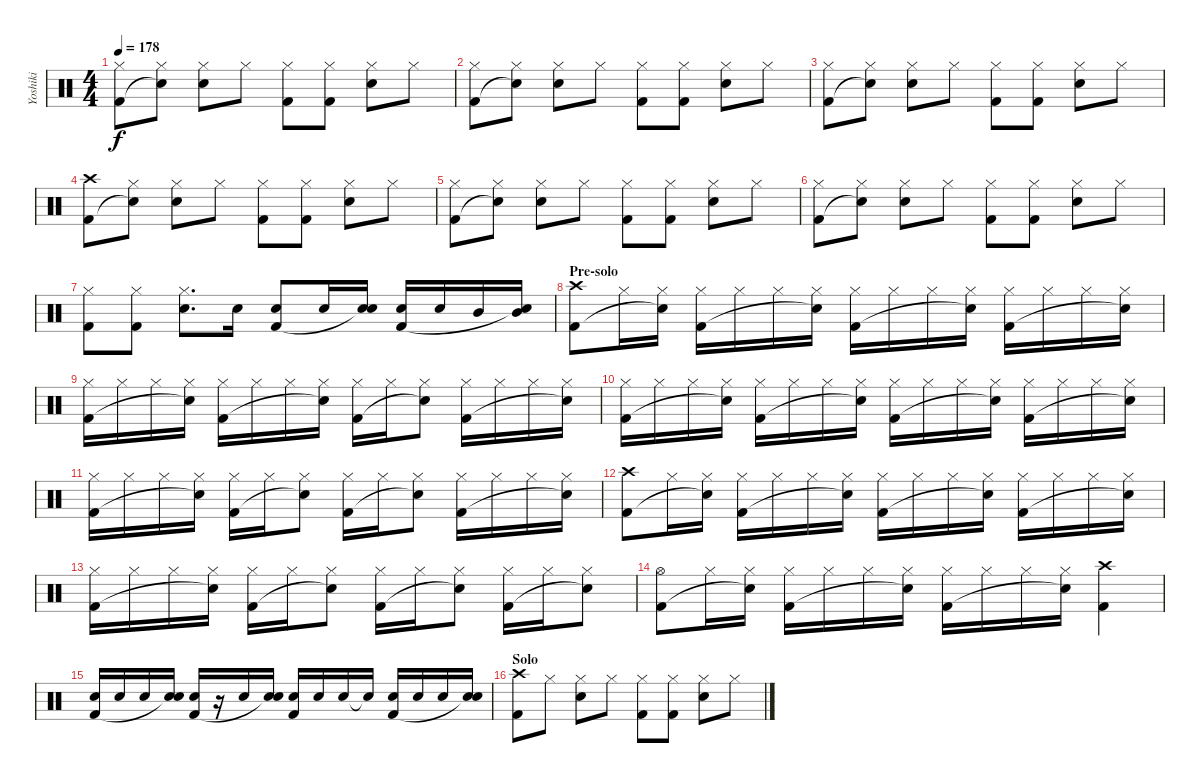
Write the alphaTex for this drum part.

\track ("Yoshiki" "Yoshiki") {instrument percussion}
\staff {score}
\articulation defaults
\ts (4 4)
\tempo 178
\clef neutral
\ks c
("Hi-Hat (closed)" "Kick (hit) 2").8{dy f} ("Hi-Hat (closed)" "Snare (hit)"{t}).8 ("Hi-Hat (closed)" "Snare (hit) 2").8 "Hi-Hat (closed)".8 ("Hi-Hat (closed)" "Kick (hit) 2").8 ("Hi-Hat (closed)" "Kick (hit) 2").8 ("Hi-Hat (closed)" "Snare (hit) 2").8 "Hi-Hat (closed)".8 |
("Hi-Hat (closed)" "Kick (hit) 2").8 ("Hi-Hat (closed)" "Snare (hit)"{t}).8 ("Hi-Hat (closed)" "Snare (hit) 2").8 "Hi-Hat (closed)".8 ("Hi-Hat (closed)" "Kick (hit) 2").8 ("Hi-Hat (closed)" "Kick (hit) 2").8 ("Hi-Hat (closed)" "Snare (hit) 2").8 "Hi-Hat (closed)".8 |
("Hi-Hat (closed)" "Kick (hit) 2").8 ("Hi-Hat (closed)" "Snare (hit)"{t}).8 ("Hi-Hat (closed)" "Snare (hit) 2").8 "Hi-Hat (closed)".8 ("Hi-Hat (closed)" "Kick (hit) 2").8 ("Hi-Hat (closed)" "Kick (hit) 2").8 ("Hi-Hat (closed)" "Snare (hit) 2").8 "Hi-Hat (closed)".8 |
("Crash high (hit)" "Kick (hit) 2").8 ("Hi-Hat (closed)" "Snare (hit)"{t}).8 ("Hi-Hat (closed)" "Snare (hit) 2").8 "Hi-Hat (closed)".8 ("Hi-Hat (closed)" "Kick (hit) 2").8 ("Hi-Hat (closed)" "Kick (hit) 2").8 ("Hi-Hat (closed)" "Snare (hit) 2").8 "Hi-Hat (closed)".8 |
("Hi-Hat (closed)" "Kick (hit) 2").8 ("Hi-Hat (closed)" "Snare (hit)"{t}).8 ("Hi-Hat (closed)" "Snare (hit) 2").8 "Hi-Hat (closed)".8 ("Hi-Hat (closed)" "Kick (hit) 2").8 ("Hi-Hat (closed)" "Kick (hit) 2").8 ("Hi-Hat (closed)" "Snare (hit) 2").8 "Hi-Hat (closed)".8 |
("Hi-Hat (closed)" "Kick (hit) 2").8 ("Hi-Hat (closed)" "Snare (hit)"{t}).8 ("Hi-Hat (closed)" "Snare (hit) 2").8 "Hi-Hat (closed)".8 ("Hi-Hat (closed)" "Kick (hit) 2").8 ("Hi-Hat (closed)" "Kick (hit) 2").8 ("Hi-Hat (closed)" "Snare (hit) 2").8 "Hi-Hat (closed)".8 |
("Hi-Hat (closed)" "Kick (hit) 2").8 ("Hi-Hat (closed)" "Kick (hit) 2").8 ("Hi-Hat (closed)" "Snare (hit) 2").8{d} "Snare (hit) 2".16 ("Snare (hit) 2" "Kick (hit) 2").8 "Snare (hit) 2".16 ("Snare (hit) 2" "Snare (hit)"{t}).16 ("Snare (hit) 2" "Kick (hit) 2").16 "Snare (hit) 2".16 "Mid Tom (hit)".16 ("Mid Tom (hit)" "Snare (hit)"{t}).16 |
\section ("" "Pre-solo")
("Crash high (hit)" "Kick (hit) 2").8 "Hi-Hat (closed)".16 ("Hi-Hat (closed)" "Snare (hit)"{t}).16 ("Hi-Hat (closed)" "Kick (hit) 2").16 "Hi-Hat (closed)".16 "Hi-Hat (closed)".16 ("Hi-Hat (closed)" "Snare (hit)"{t}).16 ("Hi-Hat (closed)" "Kick (hit) 2").16 "Hi-Hat (closed)".16 "Hi-Hat (closed)".16 ("Hi-Hat (closed)" "Snare (hit)"{t}).16 ("Hi-Hat (closed)" "Kick (hit) 2").16 "Hi-Hat (closed)".16 "Hi-Hat (closed)".16 ("Hi-Hat (closed)" "Snare (hit)"{t}).16 |
("Hi-Hat (closed)" "Kick (hit) 2").16 "Hi-Hat (closed)".16 "Hi-Hat (closed)".16 ("Hi-Hat (closed)" "Snare (hit)"{t}).16 ("Hi-Hat (closed)" "Kick (hit) 2").16 "Hi-Hat (closed)".16 "Hi-Hat (closed)".16 ("Hi-Hat (closed)" "Snare (hit)"{t}).16 ("Hi-Hat (closed)" "Kick (hit) 2").16 "Hi-Hat (closed)".16 ("Hi-Hat (closed)" "Snare (hit)"{t}).8 ("Hi-Hat (closed)" "Kick (hit) 2").16 "Hi-Hat (closed)".16 "Hi-Hat (closed)".16 ("Hi-Hat (closed)" "Snare (hit)"{t}).16 |
("Hi-Hat (closed)" "Kick (hit) 2").16 "Hi-Hat (closed)".16 "Hi-Hat (closed)".16 ("Hi-Hat (closed)" "Snare (hit)"{t}).16 ("Hi-Hat (closed)" "Kick (hit) 2").16 "Hi-Hat (closed)".16 "Hi-Hat (closed)".16 ("Hi-Hat (closed)" "Snare (hit)"{t}).16 ("Hi-Hat (closed)" "Kick (hit) 2").16 "Hi-Hat (closed)".16 "Hi-Hat (closed)".16 ("Hi-Hat (closed)" "Snare (hit)"{t}).16 ("Hi-Hat (closed)" "Kick (hit) 2").16 "Hi-Hat (closed)".16 "Hi-Hat (closed)".16 ("Hi-Hat (closed)" "Snare (hit)"{t}).16 |
("Hi-Hat (closed)" "Kick (hit) 2").16 "Hi-Hat (closed)".16 "Hi-Hat (closed)".16 ("Hi-Hat (closed)" "Snare (hit)"{t}).16 ("Hi-Hat (closed)" "Kick (hit) 2").16 "Hi-Hat (closed)".16 ("Hi-Hat (closed)" "Snare (hit)"{t}).8 ("Hi-Hat (closed)" "Kick (hit) 2").16 "Hi-Hat (closed)".16 ("Hi-Hat (closed)" "Snare (hit)"{t}).8 ("Hi-Hat (closed)" "Kick (hit) 2").16 "Hi-Hat (closed)".16 "Hi-Hat (closed)".16 ("Hi-Hat (closed)" "Snare (hit)"{t}).16 |
("Crash high (hit)" "Kick (hit) 2").8 "Hi-Hat (closed)".16 ("Hi-Hat (closed)" "Snare (hit)"{t}).16 ("Hi-Hat (closed)" "Kick (hit) 2").16 "Hi-Hat (closed)".16 "Hi-Hat (closed)".16 ("Hi-Hat (closed)" "Snare (hit)"{t}).16 ("Hi-Hat (closed)" "Kick (hit) 2").16 "Hi-Hat (closed)".16 "Hi-Hat (closed)".16 ("Hi-Hat (closed)" "Snare (hit)"{t}).16 ("Hi-Hat (closed)" "Kick (hit) 2").16 "Hi-Hat (closed)".16 "Hi-Hat (closed)".16 ("Hi-Hat (closed)" "Snare (hit)"{t}).16 |
("Hi-Hat (closed)" "Kick (hit) 2").16 "Hi-Hat (closed)".16 "Hi-Hat (closed)".16 ("Hi-Hat (closed)" "Snare (hit)"{t}).16 ("Hi-Hat (closed)" "Kick (hit) 2").16 "Hi-Hat (closed)".16 ("Hi-Hat (closed)" "Snare (hit)"{t}).8 ("Hi-Hat (closed)" "Kick (hit) 2").16 "Hi-Hat (closed)".16 ("Hi-Hat (closed)" "Snare (hit)"{t}).8 ("Hi-Hat (closed)" "Kick (hit) 2").16 "Hi-Hat (closed)".16 ("Hi-Hat (closed)" "Snare (hit)"{t}).8 |
("Hi-Hat (open)" "Kick (hit) 2").8 "Hi-Hat (closed)".16 ("Hi-Hat (closed)" "Snare (hit)"{t}).16 ("Hi-Hat (closed)" "Kick (hit) 2").16 "Hi-Hat (closed)".16 "Hi-Hat (closed)".16 ("Hi-Hat (closed)" "Snare (hit)"{t}).16 ("Hi-Hat (closed)" "Kick (hit) 2").16 "Hi-Hat (closed)".16 "Hi-Hat (closed)".16 ("Hi-Hat (closed)" "Snare (hit)"{t}).16 ("Crash high (hit)" "Kick (hit) 2").4 |
("Snare (hit) 2" "Kick (hit) 2").16 "Snare (hit) 2".16 "Snare (hit) 2".16 ("Snare (hit) 2" "Snare (hit)"{t}).16 ("Snare (hit) 2" "Kick (hit) 2").16 r.16 "Snare (hit) 2".16 ("Snare (hit) 2" "Snare (hit)"{t}).16 ("Snare (hit) 2" "Kick (hit) 2").16 "Snare (hit) 2".16 "Snare (hit) 2".16 "Snare (hit)"{t}.16 ("Snare (hit) 2" "Kick (hit) 2").16 "Snare (hit) 2".16 "Snare (hit) 2".16 ("Snare (hit) 2" "Snare (hit)"{t}).16 |
\section ("" "Solo")
("Crash high (hit)" "Kick (hit) 2").8 "Hi-Hat (closed)".8 ("Hi-Hat (closed)" "Snare (hit) 2").8 "Hi-Hat (closed)".8 ("Hi-Hat (closed)" "Kick (hit) 2").8 ("Hi-Hat (closed)" "Kick (hit) 2").8 ("Hi-Hat (closed)" "Snare (hit) 2").8 "Hi-Hat (closed)".8
